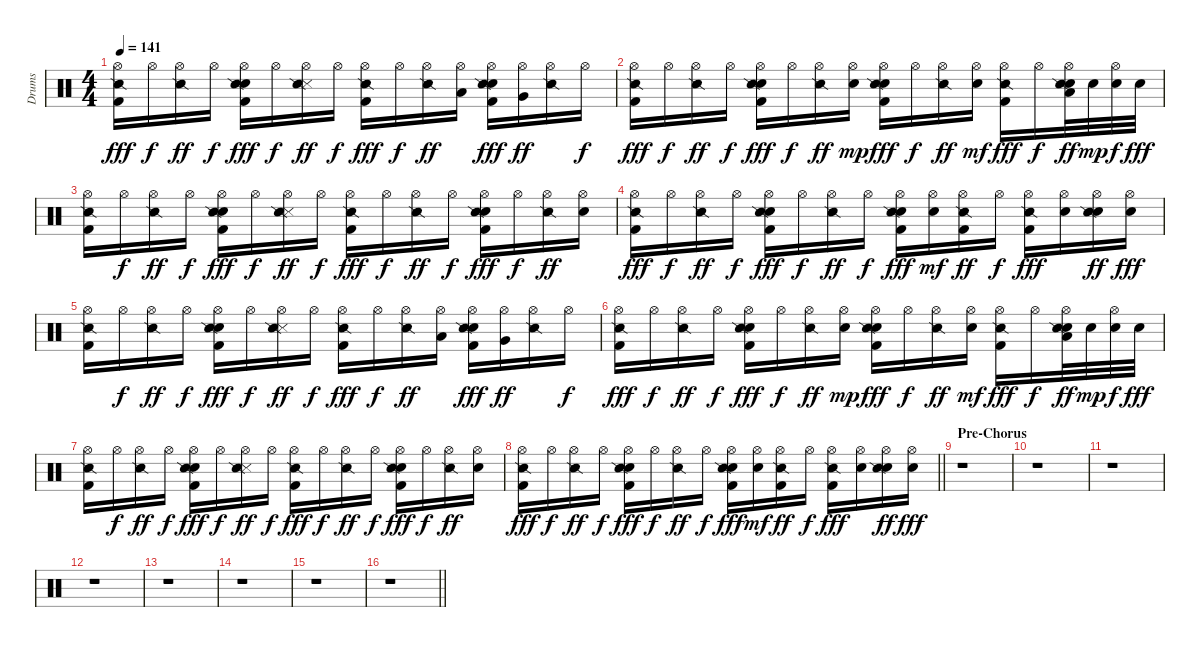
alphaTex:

\track ("Drums" "Drums") {instrument percussion}
\staff {score}
\articulation defaults
\ts (4 4)
\tempo 141
\clef neutral
\ks c
("Kick (hit) 2" "Hi-Hat (open)" "Snare (side stick) 2").16{dy fff} "Hi-Hat (open)".16{dy f} ("Hi-Hat (open)" "Snare (side stick) 2").16{dy ff} "Hi-Hat (open)".16{dy f} ("Kick (hit) 2" "Snare (hit) 2" "Hi-Hat (open)" "Snare (side stick) 2").16{dy fff} "Hi-Hat (open)".16{dy f} ("Snare (side stick) 3" "Hi-Hat (open)" "Snare (side stick) 2").16{dy ff} "Hi-Hat (open)".16{dy f} ("Kick (hit) 2" "Hi-Hat (open)" "Snare (side stick) 2").16{dy fff} "Hi-Hat (open)".16{dy f} ("Hi-Hat (open)" "Snare (side stick) 2").16{dy ff} ("Hi-Hat (open)" "Low Floor Tom (hit)").16 ("Kick (hit) 2" "Snare (hit) 2" "Hi-Hat (open)" "Snare (side stick) 2").16{dy fff} ("Hi-Hat (open)" "Very Low Tom (hit)").16{dy ff} ("Hi-Hat (open)" "Snare (side stick) 2").16 "Hi-Hat (open)".16{dy f} |
("Kick (hit) 2" "Hi-Hat (open)" "Snare (side stick) 2").16{dy fff} "Hi-Hat (open)".16{dy f} ("Hi-Hat (open)" "Snare (side stick) 2").16{dy ff} "Hi-Hat (open)".16{dy f} ("Kick (hit) 2" "Snare (hit) 2" "Hi-Hat (open)" "Snare (side stick) 2").16{dy fff} "Hi-Hat (open)".16{dy f} ("Hi-Hat (open)" "Snare (side stick) 2").16{dy ff} ("Snare (hit) 2" "Hi-Hat (open)").16{dy mp} ("Kick (hit) 2" "Snare (hit) 2" "Hi-Hat (open)" "Snare (side stick) 2").16{dy fff} "Hi-Hat (open)".16{dy f} ("Hi-Hat (open)" "Snare (side stick) 2").16{dy ff} ("Snare (hit) 2" "Hi-Hat (open)").16{dy mf} ("Kick (hit) 2" "Hi-Hat (open)" "Snare (side stick) 2").16{dy fff} "Hi-Hat (open)".16{dy f} ("Snare (hit) 2" "Hi-Hat (open)" "Low Tom (hit)" "Snare (side stick) 2").32{dy ff} "Snare (hit) 2".32{dy mp} ("Snare (hit) 2" "Hi-Hat (open)").32{dy f} "Snare (hit) 2".32{dy fff} |
("Kick (hit) 2" "Hi-Hat (open)" "Snare (side stick) 2").16 "Hi-Hat (open)".16{dy f} ("Hi-Hat (open)" "Snare (side stick) 2").16{dy ff} "Hi-Hat (open)".16{dy f} ("Kick (hit) 2" "Snare (hit) 2" "Hi-Hat (open)" "Snare (side stick) 2").16{dy fff} "Hi-Hat (open)".16{dy f} ("Snare (side stick) 3" "Hi-Hat (open)" "Snare (side stick) 2").16{dy ff} "Hi-Hat (open)".16{dy f} ("Kick (hit) 2" "Hi-Hat (open)" "Snare (side stick) 2").16{dy fff} "Hi-Hat (open)".16{dy f} ("Hi-Hat (open)" "Snare (side stick) 2").16{dy ff} "Hi-Hat (open)".16{dy f} ("Kick (hit) 2" "Snare (hit) 2" "Hi-Hat (open)" "Snare (side stick) 2").16{dy fff} "Hi-Hat (open)".16{dy f} ("Hi-Hat (open)" "Snare (side stick) 2").16{dy ff} ("Snare (hit) 2" "Hi-Hat (open)").16 |
("Kick (hit) 2" "Hi-Hat (open)" "Snare (side stick) 2").16{dy fff} "Hi-Hat (open)".16{dy f} ("Hi-Hat (open)" "Snare (side stick) 2").16{dy ff} "Hi-Hat (open)".16{dy f} ("Kick (hit) 2" "Snare (hit) 2" "Hi-Hat (open)" "Snare (side stick) 2").16{dy fff} "Hi-Hat (open)".16{dy f} ("Hi-Hat (open)" "Snare (side stick) 2").16{dy ff} "Hi-Hat (open)".16{dy f} ("Kick (hit) 2" "Snare (hit) 2" "Hi-Hat (open)" "Snare (side stick) 2").16{dy fff} ("Snare (hit) 2" "Hi-Hat (open)").16{dy mf} ("Kick (hit) 2" "Hi-Hat (open)" "Snare (side stick) 2").16{dy ff} "Hi-Hat (open)".16{dy f} ("Kick (hit) 2" "Hi-Hat (open)" "Snare (side stick) 2").16{dy fff} ("Snare (hit) 2" "Hi-Hat (open)").16 ("Snare (hit) 2" "Hi-Hat (open)" "Snare (side stick) 2").16{dy ff} ("Snare (hit) 2" "Hi-Hat (open)").16{dy fff} |
("Kick (hit) 2" "Hi-Hat (open)" "Snare (side stick) 2").16 "Hi-Hat (open)".16{dy f} ("Hi-Hat (open)" "Snare (side stick) 2").16{dy ff} "Hi-Hat (open)".16{dy f} ("Kick (hit) 2" "Snare (hit) 2" "Hi-Hat (open)" "Snare (side stick) 2").16{dy fff} "Hi-Hat (open)".16{dy f} ("Snare (side stick) 3" "Hi-Hat (open)" "Snare (side stick) 2").16{dy ff} "Hi-Hat (open)".16{dy f} ("Kick (hit) 2" "Hi-Hat (open)" "Snare (side stick) 2").16{dy fff} "Hi-Hat (open)".16{dy f} ("Hi-Hat (open)" "Snare (side stick) 2").16{dy ff} ("Hi-Hat (open)" "Low Floor Tom (hit)").16 ("Kick (hit) 2" "Snare (hit) 2" "Hi-Hat (open)" "Snare (side stick) 2").16{dy fff} ("Hi-Hat (open)" "Very Low Tom (hit)").16{dy ff} ("Hi-Hat (open)" "Snare (side stick) 2").16 "Hi-Hat (open)".16{dy f} |
("Kick (hit) 2" "Hi-Hat (open)" "Snare (side stick) 2").16{dy fff} "Hi-Hat (open)".16{dy f} ("Hi-Hat (open)" "Snare (side stick) 2").16{dy ff} "Hi-Hat (open)".16{dy f} ("Kick (hit) 2" "Snare (hit) 2" "Hi-Hat (open)" "Snare (side stick) 2").16{dy fff} "Hi-Hat (open)".16{dy f} ("Hi-Hat (open)" "Snare (side stick) 2").16{dy ff} ("Snare (hit) 2" "Hi-Hat (open)").16{dy mp} ("Kick (hit) 2" "Snare (hit) 2" "Hi-Hat (open)" "Snare (side stick) 2").16{dy fff} "Hi-Hat (open)".16{dy f} ("Hi-Hat (open)" "Snare (side stick) 2").16{dy ff} ("Snare (hit) 2" "Hi-Hat (open)").16{dy mf} ("Kick (hit) 2" "Hi-Hat (open)" "Snare (side stick) 2").16{dy fff} "Hi-Hat (open)".16{dy f} ("Snare (hit) 2" "Hi-Hat (open)" "Low Tom (hit)" "Snare (side stick) 2").32{dy ff} "Snare (hit) 2".32{dy mp} ("Snare (hit) 2" "Hi-Hat (open)").32{dy f} "Snare (hit) 2".32{dy fff} |
("Kick (hit) 2" "Hi-Hat (open)" "Snare (side stick) 2").16 "Hi-Hat (open)".16{dy f} ("Hi-Hat (open)" "Snare (side stick) 2").16{dy ff} "Hi-Hat (open)".16{dy f} ("Kick (hit) 2" "Snare (hit) 2" "Hi-Hat (open)" "Snare (side stick) 2").16{dy fff} "Hi-Hat (open)".16{dy f} ("Snare (side stick) 3" "Hi-Hat (open)" "Snare (side stick) 2").16{dy ff} "Hi-Hat (open)".16{dy f} ("Kick (hit) 2" "Hi-Hat (open)" "Snare (side stick) 2").16{dy fff} "Hi-Hat (open)".16{dy f} ("Hi-Hat (open)" "Snare (side stick) 2").16{dy ff} "Hi-Hat (open)".16{dy f} ("Kick (hit) 2" "Snare (hit) 2" "Hi-Hat (open)" "Snare (side stick) 2").16{dy fff} "Hi-Hat (open)".16{dy f} ("Hi-Hat (open)" "Snare (side stick) 2").16{dy ff} ("Snare (hit) 2" "Hi-Hat (open)").16 |
\barLineRight lightlight
("Kick (hit) 2" "Hi-Hat (open)" "Snare (side stick) 2").16{dy fff} "Hi-Hat (open)".16{dy f} ("Hi-Hat (open)" "Snare (side stick) 2").16{dy ff} "Hi-Hat (open)".16{dy f} ("Kick (hit) 2" "Snare (hit) 2" "Hi-Hat (open)" "Snare (side stick) 2").16{dy fff} "Hi-Hat (open)".16{dy f} ("Hi-Hat (open)" "Snare (side stick) 2").16{dy ff} "Hi-Hat (open)".16{dy f} ("Kick (hit) 2" "Snare (hit) 2" "Hi-Hat (open)" "Snare (side stick) 2").16{dy fff} ("Snare (hit) 2" "Hi-Hat (open)").16{dy mf} ("Kick (hit) 2" "Hi-Hat (open)" "Snare (side stick) 2").16{dy ff} "Hi-Hat (open)".16{dy f} ("Kick (hit) 2" "Hi-Hat (open)" "Snare (side stick) 2").16{dy fff} ("Snare (hit) 2" "Hi-Hat (open)").16 ("Snare (hit) 2" "Hi-Hat (open)" "Snare (side stick) 2").16{dy ff} ("Snare (hit) 2" "Hi-Hat (open)").16{dy fff} |
\section ("" "Pre-Chorus")
r.1 |
r.1 |
r.1 |
r.1 |
r.1 |
r.1 |
r.1 |
\barLineRight lightlight
r.1
